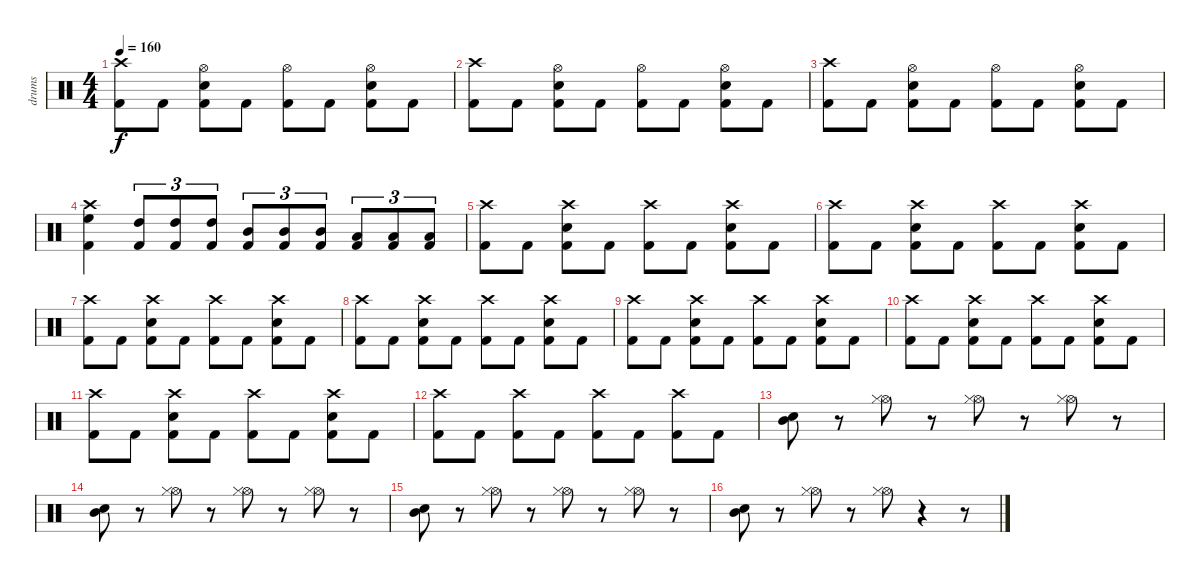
\track ("drums" "drums") {instrument percussion}
\staff {score}
\articulation defaults
\ts (4 4)
\tempo 160
\clef neutral
\ks c
("Crash high (hit)" "Kick (hit) 2").8{dy f} "Kick (hit) 2".8 ("Electric Snare (hit)" "Hi-Hat (open)" "Kick (hit) 2").8 "Kick (hit) 2".8 ("Hi-Hat (open)" "Kick (hit) 2").8 "Kick (hit) 2".8 ("Electric Snare (hit)" "Hi-Hat (open)" "Kick (hit) 2").8 "Kick (hit) 2".8 |
("Crash high (hit)" "Kick (hit) 2").8 "Kick (hit) 2".8 ("Electric Snare (hit)" "Hi-Hat (open)" "Kick (hit) 2").8 "Kick (hit) 2".8 ("Hi-Hat (open)" "Kick (hit) 2").8 "Kick (hit) 2".8 ("Electric Snare (hit)" "Hi-Hat (open)" "Kick (hit) 2").8 "Kick (hit) 2".8 |
("Crash high (hit)" "Kick (hit) 2").8 "Kick (hit) 2".8 ("Electric Snare (hit)" "Hi-Hat (open)" "Kick (hit) 2").8 "Kick (hit) 2".8 ("Hi-Hat (open)" "Kick (hit) 2").8 "Kick (hit) 2".8 ("Electric Snare (hit)" "Hi-Hat (open)" "Kick (hit) 2").8 "Kick (hit) 2".8 |
("Crash high (hit)" "High Floor Tom (hit)" "Kick (hit) 2").4 ("High Tom (hit)" "Kick (hit) 2").8{tu (3 2)} ("High Tom (hit)" "Kick (hit) 2").8{tu (3 2)} ("High Tom (hit)" "Kick (hit) 2").8{tu (3 2)} ("Mid Tom (hit)" "Kick (hit) 2").8{tu (3 2)} ("Mid Tom (hit)" "Kick (hit) 2").8{tu (3 2)} ("Mid Tom (hit)" "Kick (hit) 2").8{tu (3 2)} ("Low Tom (hit)" "Kick (hit) 2").8{tu (3 2)} ("Low Tom (hit)" "Kick (hit) 2").8{tu (3 2)} ("Low Tom (hit)" "Kick (hit) 2").8{tu (3 2)} |
("Crash high (hit)" "Kick (hit) 2").8 "Kick (hit) 2".8 ("Crash high (hit)" "Electric Snare (hit)" "Kick (hit) 2").8 "Kick (hit) 2".8 ("Crash high (hit)" "Kick (hit) 2").8 "Kick (hit) 2".8 ("Crash high (hit)" "Electric Snare (hit)" "Kick (hit) 2").8 "Kick (hit) 2".8 |
("Crash high (hit)" "Kick (hit) 2").8 "Kick (hit) 2".8 ("Crash high (hit)" "Electric Snare (hit)" "Kick (hit) 2").8 "Kick (hit) 2".8 ("Crash high (hit)" "Kick (hit) 2").8 "Kick (hit) 2".8 ("Crash high (hit)" "Electric Snare (hit)" "Kick (hit) 2").8 "Kick (hit) 2".8 |
("Crash high (hit)" "Kick (hit) 2").8 "Kick (hit) 2".8 ("Crash high (hit)" "Electric Snare (hit)" "Kick (hit) 2").8 "Kick (hit) 2".8 ("Crash high (hit)" "Kick (hit) 2").8 "Kick (hit) 2".8 ("Crash high (hit)" "Electric Snare (hit)" "Kick (hit) 2").8 "Kick (hit) 2".8 |
("Crash high (hit)" "Kick (hit) 2").8 "Kick (hit) 2".8 ("Crash high (hit)" "Electric Snare (hit)" "Kick (hit) 2").8 "Kick (hit) 2".8 ("Crash high (hit)" "Kick (hit) 2").8 "Kick (hit) 2".8 ("Crash high (hit)" "Electric Snare (hit)" "Kick (hit) 2").8 "Kick (hit) 2".8 |
("Crash high (hit)" "Kick (hit) 2").8 "Kick (hit) 2".8 ("Crash high (hit)" "Electric Snare (hit)" "Kick (hit) 2").8 "Kick (hit) 2".8 ("Crash high (hit)" "Kick (hit) 2").8 "Kick (hit) 2".8 ("Crash high (hit)" "Electric Snare (hit)" "Kick (hit) 2").8 "Kick (hit) 2".8 |
("Crash high (hit)" "Kick (hit) 2").8 "Kick (hit) 2".8 ("Crash high (hit)" "Electric Snare (hit)" "Kick (hit) 2").8 "Kick (hit) 2".8 ("Crash high (hit)" "Kick (hit) 2").8 "Kick (hit) 2".8 ("Crash high (hit)" "Electric Snare (hit)" "Kick (hit) 2").8 "Kick (hit) 2".8 |
("Crash high (hit)" "Kick (hit) 2").8 "Kick (hit) 2".8 ("Crash high (hit)" "Electric Snare (hit)" "Kick (hit) 2").8 "Kick (hit) 2".8 ("Crash high (hit)" "Kick (hit) 2").8 "Kick (hit) 2".8 ("Crash high (hit)" "Electric Snare (hit)" "Kick (hit) 2").8 "Kick (hit) 2".8 |
("Crash high (hit)" "Kick (hit) 2").8 "Kick (hit) 2".8 ("Crash high (hit)" "Kick (hit) 2").8 "Kick (hit) 2".8 ("Crash high (hit)" "Kick (hit) 2").8 "Kick (hit) 2".8 ("Crash high (hit)" "Kick (hit) 2").8 "Kick (hit) 2".8 |
("Mid Tom (hit)" "Electric Snare (hit)").8 r.8 ("Hi-Hat (open)" "Hi-Hat (closed)").8 r.8 ("Hi-Hat (open)" "Hi-Hat (closed)").8 r.8 ("Hi-Hat (open)" "Hi-Hat (closed)").8 r.8 |
("Mid Tom (hit)" "Electric Snare (hit)").8 r.8 ("Hi-Hat (open)" "Hi-Hat (closed)").8 r.8 ("Hi-Hat (open)" "Hi-Hat (closed)").8 r.8 ("Hi-Hat (open)" "Hi-Hat (closed)").8 r.8 |
("Mid Tom (hit)" "Electric Snare (hit)").8 r.8 ("Hi-Hat (open)" "Hi-Hat (closed)").8 r.8 ("Hi-Hat (open)" "Hi-Hat (closed)").8 r.8 ("Hi-Hat (open)" "Hi-Hat (closed)").8 r.8 |
("Mid Tom (hit)" "Electric Snare (hit)").8 r.8 ("Hi-Hat (open)" "Hi-Hat (closed)").8 r.8 ("Hi-Hat (open)" "Hi-Hat (closed)").8 r.4 r.8
